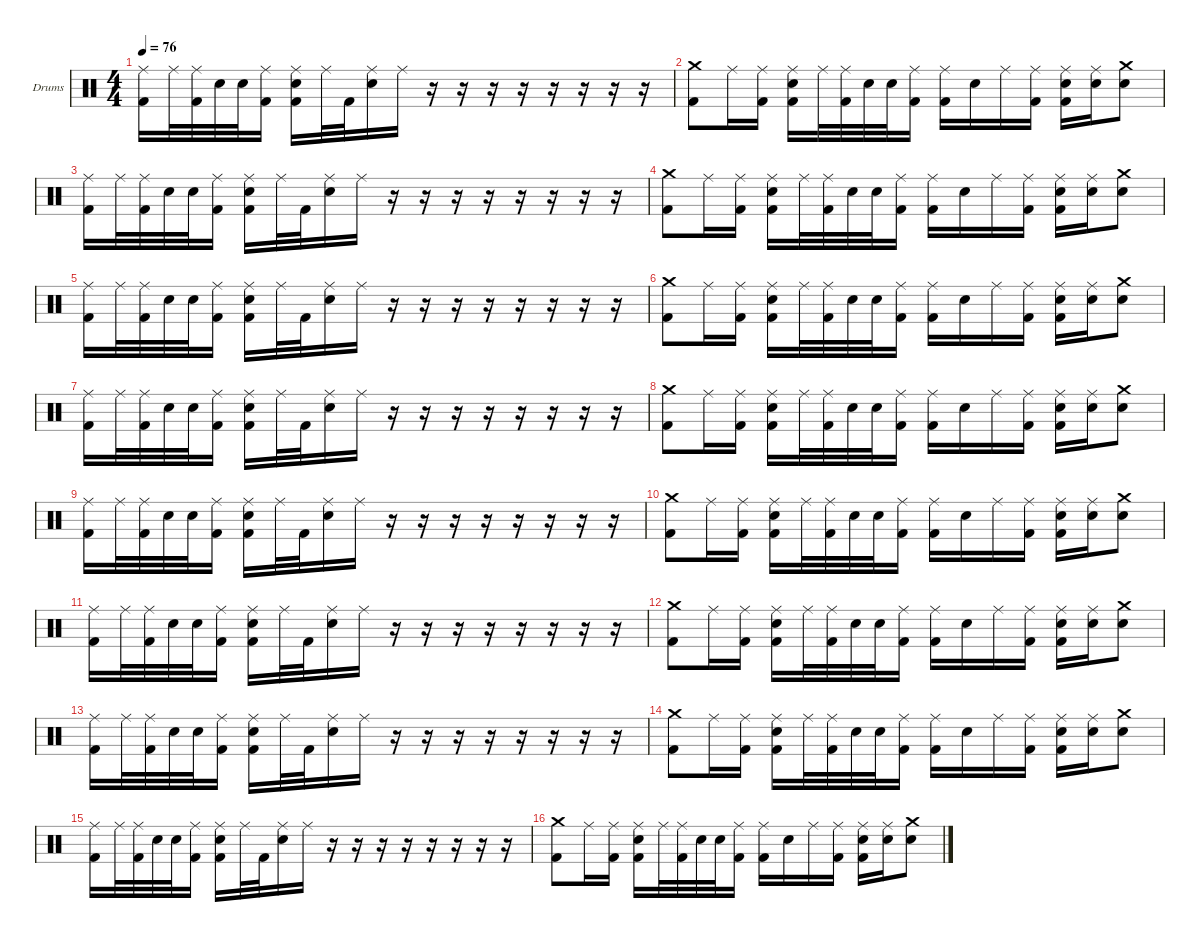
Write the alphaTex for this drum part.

\hideDynamics
\bracketExtendMode nobrackets
\firstSystemTrackNameOrientation horizontal
\otherSystemsTrackNameOrientation horizontal
\track ("Drumkit" "Drums") {instrument percussion}
\staff {score}
\articulation defaults
\ts (4 4)
\tempo 76
\clef neutral
\ks c
("Ride (middle)" "Kick (hit) 2").16{dy f beam Down} "Ride (middle)".32{beam Down} ("Kick (hit) 2" "Ride (middle)").32{beam Down} "Snare (hit) 2".32{beam Down} "Snare (hit) 2".32{beam Down} ("Kick (hit) 2" "Ride (middle)").16{beam Down} ("Ride (middle)" "Kick (hit) 2" "Snare (hit) 2").16{beam Down} "Ride (middle)".32{beam Down} "Kick (hit) 2".32{beam Down} ("Ride (middle)" "Snare (hit) 2").16{beam Down} "Ride (middle)".16{beam Down} r.16{beam Down} r.16{beam Down} r.16{beam Down} r.16{beam Down} r.16{beam Down} r.16{beam Down} r.16{beam Down} r.16{beam Down} |
("Crash medium (hit)" "Kick (hit) 2").8{beam Down} "Ride (middle)".16{beam Down} ("Kick (hit) 2" "Ride (middle)").16{beam Down} ("Snare (hit) 2" "Kick (hit) 2" "Ride (middle)").16{beam Down} "Ride (middle)".32{beam Down} ("Kick (hit) 2" "Ride (middle)").32{beam Down} "Snare (hit) 2".32{beam Down} "Snare (hit) 2".32{beam Down} ("Kick (hit) 2" "Ride (middle)").16{beam Down} ("Kick (hit) 2" "Ride (middle)").16{beam Down} "Snare (hit) 2".16{beam Down} "Ride (middle)".16{beam Down} ("Kick (hit) 2" "Ride (middle)").16{beam Down} ("Kick (hit) 2" "Snare (hit) 2" "Ride (middle)").16{beam Down} ("Snare (hit) 2" "Ride (middle)").16{beam Down} ("Snare (hit) 2" "Crash medium (hit)").8{beam Down} |
("Ride (middle)" "Kick (hit) 2").16{beam Down} "Ride (middle)".32{beam Down} ("Kick (hit) 2" "Ride (middle)").32{beam Down} "Snare (hit) 2".32{beam Down} "Snare (hit) 2".32{beam Down} ("Kick (hit) 2" "Ride (middle)").16{beam Down} ("Ride (middle)" "Kick (hit) 2" "Snare (hit) 2").16{beam Down} "Ride (middle)".32{beam Down} "Kick (hit) 2".32{beam Down} ("Ride (middle)" "Snare (hit) 2").16{beam Down} "Ride (middle)".16{beam Down} r.16{beam Down} r.16{beam Down} r.16{beam Down} r.16{beam Down} r.16{beam Down} r.16{beam Down} r.16{beam Down} r.16{beam Down} |
("Crash medium (hit)" "Kick (hit) 2").8{beam Down} "Ride (middle)".16{beam Down} ("Kick (hit) 2" "Ride (middle)").16{beam Down} ("Snare (hit) 2" "Kick (hit) 2" "Ride (middle)").16{beam Down} "Ride (middle)".32{beam Down} ("Kick (hit) 2" "Ride (middle)").32{beam Down} "Snare (hit) 2".32{beam Down} "Snare (hit) 2".32{beam Down} ("Kick (hit) 2" "Ride (middle)").16{beam Down} ("Kick (hit) 2" "Ride (middle)").16{beam Down} "Snare (hit) 2".16{beam Down} "Ride (middle)".16{beam Down} ("Kick (hit) 2" "Ride (middle)").16{beam Down} ("Kick (hit) 2" "Snare (hit) 2" "Ride (middle)").16{beam Down} ("Snare (hit) 2" "Ride (middle)").16{beam Down} ("Snare (hit) 2" "Crash medium (hit)").8{beam Down} |
("Ride (middle)" "Kick (hit) 2").16{beam Down} "Ride (middle)".32{beam Down} ("Kick (hit) 2" "Ride (middle)").32{beam Down} "Snare (hit) 2".32{beam Down} "Snare (hit) 2".32{beam Down} ("Kick (hit) 2" "Ride (middle)").16{beam Down} ("Ride (middle)" "Kick (hit) 2" "Snare (hit) 2").16{beam Down} "Ride (middle)".32{beam Down} "Kick (hit) 2".32{beam Down} ("Ride (middle)" "Snare (hit) 2").16{beam Down} "Ride (middle)".16{beam Down} r.16{beam Down} r.16{beam Down} r.16{beam Down} r.16{beam Down} r.16{beam Down} r.16{beam Down} r.16{beam Down} r.16{beam Down} |
("Crash medium (hit)" "Kick (hit) 2").8{beam Down} "Ride (middle)".16{beam Down} ("Kick (hit) 2" "Ride (middle)").16{beam Down} ("Snare (hit) 2" "Kick (hit) 2" "Ride (middle)").16{beam Down} "Ride (middle)".32{beam Down} ("Kick (hit) 2" "Ride (middle)").32{beam Down} "Snare (hit) 2".32{beam Down} "Snare (hit) 2".32{beam Down} ("Kick (hit) 2" "Ride (middle)").16{beam Down} ("Kick (hit) 2" "Ride (middle)").16{beam Down} "Snare (hit) 2".16{beam Down} "Ride (middle)".16{beam Down} ("Kick (hit) 2" "Ride (middle)").16{beam Down} ("Kick (hit) 2" "Snare (hit) 2" "Ride (middle)").16{beam Down} ("Snare (hit) 2" "Ride (middle)").16{beam Down} ("Snare (hit) 2" "Crash medium (hit)").8{beam Down} |
("Ride (middle)" "Kick (hit) 2").16{beam Down} "Ride (middle)".32{beam Down} ("Kick (hit) 2" "Ride (middle)").32{beam Down} "Snare (hit) 2".32{beam Down} "Snare (hit) 2".32{beam Down} ("Kick (hit) 2" "Ride (middle)").16{beam Down} ("Ride (middle)" "Kick (hit) 2" "Snare (hit) 2").16{beam Down} "Ride (middle)".32{beam Down} "Kick (hit) 2".32{beam Down} ("Ride (middle)" "Snare (hit) 2").16{beam Down} "Ride (middle)".16{beam Down} r.16{beam Down} r.16{beam Down} r.16{beam Down} r.16{beam Down} r.16{beam Down} r.16{beam Down} r.16{beam Down} r.16{beam Down} |
("Crash medium (hit)" "Kick (hit) 2").8{beam Down} "Ride (middle)".16{beam Down} ("Kick (hit) 2" "Ride (middle)").16{beam Down} ("Snare (hit) 2" "Kick (hit) 2" "Ride (middle)").16{beam Down} "Ride (middle)".32{beam Down} ("Kick (hit) 2" "Ride (middle)").32{beam Down} "Snare (hit) 2".32{beam Down} "Snare (hit) 2".32{beam Down} ("Kick (hit) 2" "Ride (middle)").16{beam Down} ("Kick (hit) 2" "Ride (middle)").16{beam Down} "Snare (hit) 2".16{beam Down} "Ride (middle)".16{beam Down} ("Kick (hit) 2" "Ride (middle)").16{beam Down} ("Kick (hit) 2" "Snare (hit) 2" "Ride (middle)").16{beam Down} ("Snare (hit) 2" "Ride (middle)").16{beam Down} ("Snare (hit) 2" "Crash medium (hit)").8{beam Down} |
("Ride (middle)" "Kick (hit) 2").16{beam Down} "Ride (middle)".32{beam Down} ("Kick (hit) 2" "Ride (middle)").32{beam Down} "Snare (hit) 2".32{beam Down} "Snare (hit) 2".32{beam Down} ("Kick (hit) 2" "Ride (middle)").16{beam Down} ("Ride (middle)" "Kick (hit) 2" "Snare (hit) 2").16{beam Down} "Ride (middle)".32{beam Down} "Kick (hit) 2".32{beam Down} ("Ride (middle)" "Snare (hit) 2").16{beam Down} "Ride (middle)".16{beam Down} r.16{beam Down} r.16{beam Down} r.16{beam Down} r.16{beam Down} r.16{beam Down} r.16{beam Down} r.16{beam Down} r.16{beam Down} |
("Crash medium (hit)" "Kick (hit) 2").8{beam Down} "Ride (middle)".16{beam Down} ("Kick (hit) 2" "Ride (middle)").16{beam Down} ("Snare (hit) 2" "Kick (hit) 2" "Ride (middle)").16{beam Down} "Ride (middle)".32{beam Down} ("Kick (hit) 2" "Ride (middle)").32{beam Down} "Snare (hit) 2".32{beam Down} "Snare (hit) 2".32{beam Down} ("Kick (hit) 2" "Ride (middle)").16{beam Down} ("Kick (hit) 2" "Ride (middle)").16{beam Down} "Snare (hit) 2".16{beam Down} "Ride (middle)".16{beam Down} ("Kick (hit) 2" "Ride (middle)").16{beam Down} ("Kick (hit) 2" "Snare (hit) 2" "Ride (middle)").16{beam Down} ("Snare (hit) 2" "Ride (middle)").16{beam Down} ("Snare (hit) 2" "Crash medium (hit)").8{beam Down} |
("Ride (middle)" "Kick (hit) 2").16{beam Down} "Ride (middle)".32{beam Down} ("Kick (hit) 2" "Ride (middle)").32{beam Down} "Snare (hit) 2".32{beam Down} "Snare (hit) 2".32{beam Down} ("Kick (hit) 2" "Ride (middle)").16{beam Down} ("Ride (middle)" "Kick (hit) 2" "Snare (hit) 2").16{beam Down} "Ride (middle)".32{beam Down} "Kick (hit) 2".32{beam Down} ("Ride (middle)" "Snare (hit) 2").16{beam Down} "Ride (middle)".16{beam Down} r.16{beam Down} r.16{beam Down} r.16{beam Down} r.16{beam Down} r.16{beam Down} r.16{beam Down} r.16{beam Down} r.16{beam Down} |
("Crash medium (hit)" "Kick (hit) 2").8{beam Down} "Ride (middle)".16{beam Down} ("Kick (hit) 2" "Ride (middle)").16{beam Down} ("Snare (hit) 2" "Kick (hit) 2" "Ride (middle)").16{beam Down} "Ride (middle)".32{beam Down} ("Kick (hit) 2" "Ride (middle)").32{beam Down} "Snare (hit) 2".32{beam Down} "Snare (hit) 2".32{beam Down} ("Kick (hit) 2" "Ride (middle)").16{beam Down} ("Kick (hit) 2" "Ride (middle)").16{beam Down} "Snare (hit) 2".16{beam Down} "Ride (middle)".16{beam Down} ("Kick (hit) 2" "Ride (middle)").16{beam Down} ("Kick (hit) 2" "Snare (hit) 2" "Ride (middle)").16{beam Down} ("Snare (hit) 2" "Ride (middle)").16{beam Down} ("Snare (hit) 2" "Crash medium (hit)").8{beam Down} |
("Ride (middle)" "Kick (hit) 2").16{beam Down} "Ride (middle)".32{beam Down} ("Kick (hit) 2" "Ride (middle)").32{beam Down} "Snare (hit) 2".32{beam Down} "Snare (hit) 2".32{beam Down} ("Kick (hit) 2" "Ride (middle)").16{beam Down} ("Ride (middle)" "Kick (hit) 2" "Snare (hit) 2").16{beam Down} "Ride (middle)".32{beam Down} "Kick (hit) 2".32{beam Down} ("Ride (middle)" "Snare (hit) 2").16{beam Down} "Ride (middle)".16{beam Down} r.16{beam Down} r.16{beam Down} r.16{beam Down} r.16{beam Down} r.16{beam Down} r.16{beam Down} r.16{beam Down} r.16{beam Down} |
("Crash medium (hit)" "Kick (hit) 2").8{beam Down} "Ride (middle)".16{beam Down} ("Kick (hit) 2" "Ride (middle)").16{beam Down} ("Snare (hit) 2" "Kick (hit) 2" "Ride (middle)").16{beam Down} "Ride (middle)".32{beam Down} ("Kick (hit) 2" "Ride (middle)").32{beam Down} "Snare (hit) 2".32{beam Down} "Snare (hit) 2".32{beam Down} ("Kick (hit) 2" "Ride (middle)").16{beam Down} ("Kick (hit) 2" "Ride (middle)").16{beam Down} "Snare (hit) 2".16{beam Down} "Ride (middle)".16{beam Down} ("Kick (hit) 2" "Ride (middle)").16{beam Down} ("Kick (hit) 2" "Snare (hit) 2" "Ride (middle)").16{beam Down} ("Snare (hit) 2" "Ride (middle)").16{beam Down} ("Snare (hit) 2" "Crash medium (hit)").8{beam Down} |
("Kick (hit) 2" "Ride (middle)").16{beam Down} "Ride (middle)".32{beam Down} ("Kick (hit) 2" "Ride (middle)").32{beam Down} "Snare (hit) 2".32{beam Down} "Snare (hit) 2".32{beam Down} ("Kick (hit) 2" "Ride (middle)").16{beam Down} ("Ride (middle)" "Kick (hit) 2" "Snare (hit) 2").16{beam Down} "Ride (middle)".32{beam Down} "Kick (hit) 2".32{beam Down} ("Ride (middle)" "Snare (hit) 2").16{beam Down} "Ride (middle)".16{beam Down} r.16{beam Down} r.16{beam Down} r.16{beam Down} r.16{beam Down} r.16{beam Down} r.16{beam Down} r.16{beam Down} r.16{beam Down} |
("Kick (hit) 2" "Crash medium (hit)").8{beam Down} "Ride (middle)".16{beam Down} ("Kick (hit) 2" "Ride (middle)").16{beam Down} ("Snare (hit) 2" "Kick (hit) 2" "Ride (middle)").16{beam Down} "Ride (middle)".32{beam Down} ("Kick (hit) 2" "Ride (middle)").32{beam Down} "Snare (hit) 2".32{beam Down} "Snare (hit) 2".32{beam Down} ("Kick (hit) 2" "Ride (middle)").16{beam Down} ("Kick (hit) 2" "Ride (middle)").16{beam Down} "Snare (hit) 2".16{beam Down} "Ride (middle)".16{beam Down} ("Kick (hit) 2" "Ride (middle)").16{beam Down} ("Kick (hit) 2" "Snare (hit) 2" "Ride (middle)").16{beam Down} ("Snare (hit) 2" "Ride (middle)").16{beam Down} ("Snare (hit) 2" "Crash medium (hit)").8{beam Down}
